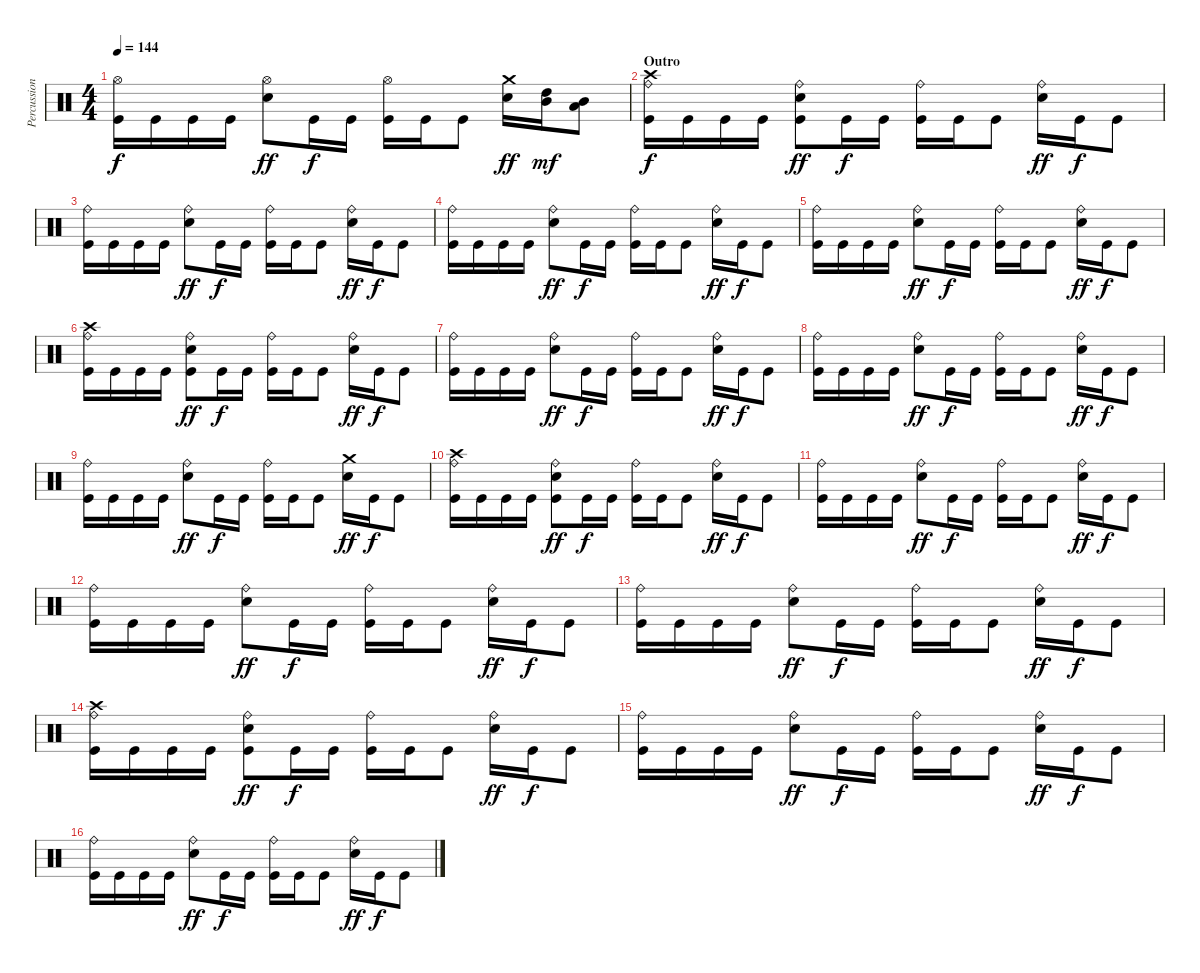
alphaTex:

\track ("Percussions" "Percussion") {instrument percussion}
\staff {score}
\articulation defaults
\ts (4 4)
\tempo 144
\clef neutral
\ks c
("Kick (hit)" "Hi-Hat (open)").16{dy f} "Kick (hit)".16 "Kick (hit)".16 "Kick (hit)".16 ("Electric Snare (hit)" "Hi-Hat (open)").8{dy ff} "Kick (hit)".16{dy f} "Kick (hit)".16 ("Kick (hit)" "Hi-Hat (open)").16 "Kick (hit)".16 "Kick (hit)".8 ("Electric Snare (hit)" "Crash medium (hit)").16{dy ff} ("Mid Tom (hit)" "High Tom (hit)").16{dy mf} ("Low Tom (hit)" "Mid Tom (hit)").8 |
\section ("" "Outro")
("Kick (hit)" "Ride (bell)" "Crash high (hit)").16{dy f} "Kick (hit)".16 "Kick (hit)".16 "Kick (hit)".16 ("Kick (hit)" "Electric Snare (hit)" "Ride (bell)").8{dy ff} "Kick (hit)".16{dy f} "Kick (hit)".16 ("Kick (hit)" "Ride (bell)").16 "Kick (hit)".16 "Kick (hit)".8 ("Electric Snare (hit)" "Ride (bell)").16{dy ff} "Kick (hit)".16{dy f} "Kick (hit)".8 |
("Kick (hit)" "Ride (bell)").16 "Kick (hit)".16 "Kick (hit)".16 "Kick (hit)".16 ("Electric Snare (hit)" "Ride (bell)").8{dy ff} "Kick (hit)".16{dy f} "Kick (hit)".16 ("Kick (hit)" "Ride (bell)").16 "Kick (hit)".16 "Kick (hit)".8 ("Electric Snare (hit)" "Ride (bell)").16{dy ff} "Kick (hit)".16{dy f} "Kick (hit)".8 |
("Kick (hit)" "Ride (bell)").16 "Kick (hit)".16 "Kick (hit)".16 "Kick (hit)".16 ("Electric Snare (hit)" "Ride (bell)").8{dy ff} "Kick (hit)".16{dy f} "Kick (hit)".16 ("Kick (hit)" "Ride (bell)").16 "Kick (hit)".16 "Kick (hit)".8 ("Electric Snare (hit)" "Ride (bell)").16{dy ff} "Kick (hit)".16{dy f} "Kick (hit)".8 |
("Kick (hit)" "Ride (bell)").16 "Kick (hit)".16 "Kick (hit)".16 "Kick (hit)".16 ("Electric Snare (hit)" "Ride (bell)").8{dy ff} "Kick (hit)".16{dy f} "Kick (hit)".16 ("Kick (hit)" "Ride (bell)").16 "Kick (hit)".16 "Kick (hit)".8 ("Electric Snare (hit)" "Ride (bell)").16{dy ff} "Kick (hit)".16{dy f} "Kick (hit)".8 |
("Kick (hit)" "Ride (bell)" "Crash high (hit)").16 "Kick (hit)".16 "Kick (hit)".16 "Kick (hit)".16 ("Kick (hit)" "Electric Snare (hit)" "Ride (bell)").8{dy ff} "Kick (hit)".16{dy f} "Kick (hit)".16 ("Kick (hit)" "Ride (bell)").16 "Kick (hit)".16 "Kick (hit)".8 ("Electric Snare (hit)" "Ride (bell)").16{dy ff} "Kick (hit)".16{dy f} "Kick (hit)".8 |
("Kick (hit)" "Ride (bell)").16 "Kick (hit)".16 "Kick (hit)".16 "Kick (hit)".16 ("Electric Snare (hit)" "Ride (bell)").8{dy ff} "Kick (hit)".16{dy f} "Kick (hit)".16 ("Kick (hit)" "Ride (bell)").16 "Kick (hit)".16 "Kick (hit)".8 ("Electric Snare (hit)" "Ride (bell)").16{dy ff} "Kick (hit)".16{dy f} "Kick (hit)".8 |
("Kick (hit)" "Ride (bell)").16 "Kick (hit)".16 "Kick (hit)".16 "Kick (hit)".16 ("Electric Snare (hit)" "Ride (bell)").8{dy ff} "Kick (hit)".16{dy f} "Kick (hit)".16 ("Kick (hit)" "Ride (bell)").16 "Kick (hit)".16 "Kick (hit)".8 ("Electric Snare (hit)" "Ride (bell)").16{dy ff} "Kick (hit)".16{dy f} "Kick (hit)".8 |
("Kick (hit)" "Ride (bell)").16 "Kick (hit)".16 "Kick (hit)".16 "Kick (hit)".16 ("Electric Snare (hit)" "Ride (bell)").8{dy ff} "Kick (hit)".16{dy f} "Kick (hit)".16 ("Kick (hit)" "Ride (bell)").16 "Kick (hit)".16 "Kick (hit)".8 ("Electric Snare (hit)" "Crash medium (hit)").16{dy ff} "Kick (hit)".16{dy f} "Kick (hit)".8 |
("Kick (hit)" "Ride (bell)" "Crash high (hit)").16{volume 13} "Kick (hit)".16 "Kick (hit)".16 "Kick (hit)".16 ("Kick (hit)" "Electric Snare (hit)" "Ride (bell)").8{dy ff} "Kick (hit)".16{dy f} "Kick (hit)".16 ("Kick (hit)" "Ride (bell)").16 "Kick (hit)".16 "Kick (hit)".8 ("Electric Snare (hit)" "Ride (bell)").16{dy ff} "Kick (hit)".16{dy f} "Kick (hit)".8 |
("Kick (hit)" "Ride (bell)").16 "Kick (hit)".16 "Kick (hit)".16 "Kick (hit)".16 ("Electric Snare (hit)" "Ride (bell)").8{dy ff} "Kick (hit)".16{dy f} "Kick (hit)".16 ("Kick (hit)" "Ride (bell)").16 "Kick (hit)".16 "Kick (hit)".8 ("Electric Snare (hit)" "Ride (bell)").16{dy ff} "Kick (hit)".16{dy f} "Kick (hit)".8 |
("Kick (hit)" "Ride (bell)").16{volume 11} "Kick (hit)".16 "Kick (hit)".16 "Kick (hit)".16 ("Electric Snare (hit)" "Ride (bell)").8{dy ff} "Kick (hit)".16{dy f} "Kick (hit)".16 ("Kick (hit)" "Ride (bell)").16 "Kick (hit)".16 "Kick (hit)".8 ("Electric Snare (hit)" "Ride (bell)").16{dy ff} "Kick (hit)".16{dy f} "Kick (hit)".8 |
("Kick (hit)" "Ride (bell)").16 "Kick (hit)".16 "Kick (hit)".16 "Kick (hit)".16 ("Electric Snare (hit)" "Ride (bell)").8{dy ff} "Kick (hit)".16{dy f} "Kick (hit)".16 ("Kick (hit)" "Ride (bell)").16 "Kick (hit)".16 "Kick (hit)".8 ("Electric Snare (hit)" "Ride (bell)").16{dy ff} "Kick (hit)".16{dy f} "Kick (hit)".8 |
("Kick (hit)" "Ride (bell)" "Crash high (hit)").16{volume 7} "Kick (hit)".16 "Kick (hit)".16 "Kick (hit)".16 ("Kick (hit)" "Electric Snare (hit)" "Ride (bell)").8{dy ff} "Kick (hit)".16{dy f} "Kick (hit)".16 ("Kick (hit)" "Ride (bell)").16 "Kick (hit)".16 "Kick (hit)".8 ("Electric Snare (hit)" "Ride (bell)").16{dy ff} "Kick (hit)".16{dy f} "Kick (hit)".8 |
("Kick (hit)" "Ride (bell)").16 "Kick (hit)".16 "Kick (hit)".16 "Kick (hit)".16 ("Electric Snare (hit)" "Ride (bell)").8{dy ff} "Kick (hit)".16{dy f} "Kick (hit)".16 ("Kick (hit)" "Ride (bell)").16 "Kick (hit)".16 "Kick (hit)".8 ("Electric Snare (hit)" "Ride (bell)").16{dy ff} "Kick (hit)".16{dy f} "Kick (hit)".8 |
("Kick (hit)" "Ride (bell)").16{volume 0} "Kick (hit)".16 "Kick (hit)".16 "Kick (hit)".16 ("Electric Snare (hit)" "Ride (bell)").8{dy ff} "Kick (hit)".16{dy f} "Kick (hit)".16 ("Kick (hit)" "Ride (bell)").16 "Kick (hit)".16 "Kick (hit)".8 ("Electric Snare (hit)" "Ride (bell)").16{dy ff} "Kick (hit)".16{dy f} "Kick (hit)".8
